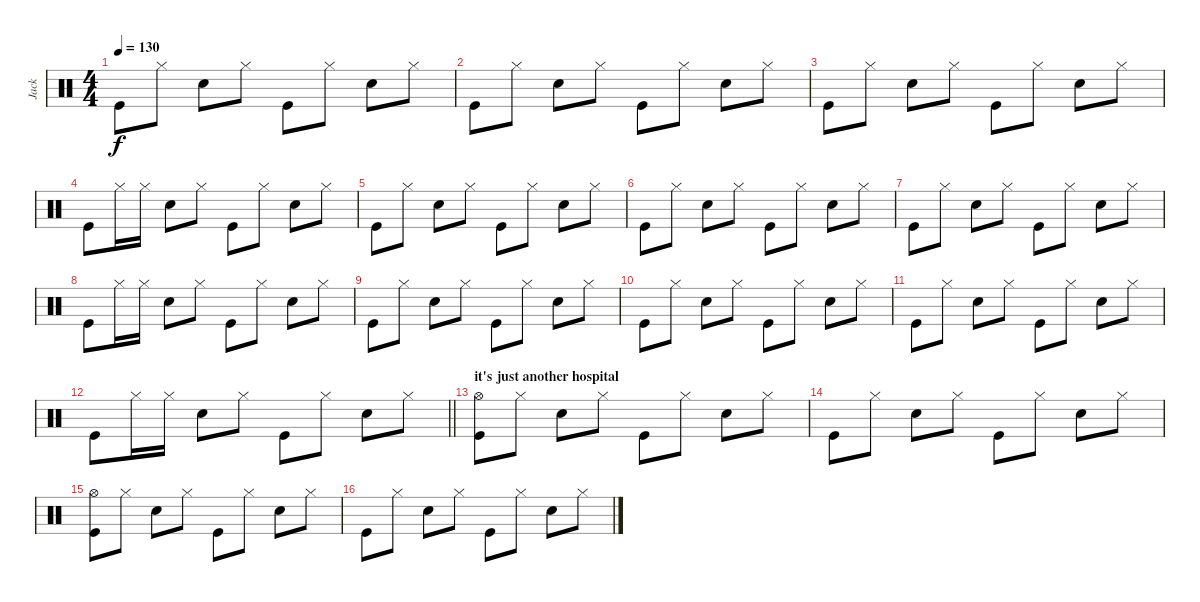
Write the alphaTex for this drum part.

\track ("Jack" "Jack") {instrument percussion}
\staff {score}
\articulation defaults
\ts (4 4)
\tempo 130
\clef neutral
\ks c "Kick (hit)".8{dy f} "Hi-Hat (closed)".8 "Electric Snare (hit)".8 "Hi-Hat (closed)".8 "Kick (hit)".8 "Hi-Hat (closed)".8 "Electric Snare (hit)".8 "Hi-Hat (closed)".8
|
"Kick (hit)".8 "Hi-Hat (closed)".8 "Electric Snare (hit)".8 "Hi-Hat (closed)".8 "Kick (hit)".8 "Hi-Hat (closed)".8 "Electric Snare (hit)".8 "Hi-Hat (closed)".8 |
"Kick (hit)".8 "Hi-Hat (closed)".8 "Electric Snare (hit)".8 "Hi-Hat (closed)".8 "Kick (hit)".8 "Hi-Hat (closed)".8 "Electric Snare (hit)".8 "Hi-Hat (closed)".8 |
"Kick (hit)".8 "Hi-Hat (closed)".16 "Hi-Hat (closed)".16 "Electric Snare (hit)".8 "Hi-Hat (closed)".8 "Kick (hit)".8 "Hi-Hat (closed)".8 "Electric Snare (hit)".8 "Hi-Hat (closed)".8 |
"Kick (hit)".8 "Hi-Hat (closed)".8 "Electric Snare (hit)".8 "Hi-Hat (closed)".8 "Kick (hit)".8 "Hi-Hat (closed)".8 "Electric Snare (hit)".8 "Hi-Hat (closed)".8 |
"Kick (hit)".8 "Hi-Hat (closed)".8 "Electric Snare (hit)".8 "Hi-Hat (closed)".8 "Kick (hit)".8 "Hi-Hat (closed)".8 "Electric Snare (hit)".8 "Hi-Hat (closed)".8 |
"Kick (hit)".8 "Hi-Hat (closed)".8 "Electric Snare (hit)".8 "Hi-Hat (closed)".8 "Kick (hit)".8 "Hi-Hat (closed)".8 "Electric Snare (hit)".8 "Hi-Hat (closed)".8 |
"Kick (hit)".8 "Hi-Hat (closed)".16 "Hi-Hat (closed)".16 "Electric Snare (hit)".8 "Hi-Hat (closed)".8 "Kick (hit)".8 "Hi-Hat (closed)".8 "Electric Snare (hit)".8 "Hi-Hat (closed)".8 |
"Kick (hit)".8 "Hi-Hat (closed)".8 "Electric Snare (hit)".8 "Hi-Hat (closed)".8 "Kick (hit)".8 "Hi-Hat (closed)".8 "Electric Snare (hit)".8 "Hi-Hat (closed)".8 |
"Kick (hit)".8 "Hi-Hat (closed)".8 "Electric Snare (hit)".8 "Hi-Hat (closed)".8 "Kick (hit)".8 "Hi-Hat (closed)".8 "Electric Snare (hit)".8 "Hi-Hat (closed)".8 |
"Kick (hit)".8 "Hi-Hat (closed)".8 "Electric Snare (hit)".8 "Hi-Hat (closed)".8 "Kick (hit)".8 "Hi-Hat (closed)".8 "Electric Snare (hit)".8 "Hi-Hat (closed)".8 |
\barLineRight lightlight "Kick (hit)".8 "Hi-Hat (closed)".16 "Hi-Hat (closed)".16 "Electric Snare (hit)".8 "Hi-Hat (closed)".8 "Kick (hit)".8 "Hi-Hat (closed)".8 "Electric Snare (hit)".8 "Hi-Hat (closed)".8
|
\section ("" "it's just another hospital")
("Hi-Hat (open)" "Kick (hit)").8 "Hi-Hat (closed)".8 "Electric Snare (hit)".8 "Hi-Hat (closed)".8 "Kick (hit)".8 "Hi-Hat (closed)".8 "Electric Snare (hit)".8 "Hi-Hat (closed)".8 |
"Kick (hit)".8 "Hi-Hat (closed)".8 "Electric Snare (hit)".8 "Hi-Hat (closed)".8 "Kick (hit)".8 "Hi-Hat (closed)".8 "Electric Snare (hit)".8 "Hi-Hat (closed)".8 |
("Hi-Hat (open)" "Kick (hit)").8 "Hi-Hat (closed)".8 "Electric Snare (hit)".8 "Hi-Hat (closed)".8 "Kick (hit)".8 "Hi-Hat (closed)".8 "Electric Snare (hit)".8 "Hi-Hat (closed)".8 |
"Kick (hit)".8 "Hi-Hat (closed)".8 "Electric Snare (hit)".8 "Hi-Hat (closed)".8 "Kick (hit)".8 "Hi-Hat (closed)".8 "Electric Snare (hit)".8 "Hi-Hat (closed)".8
